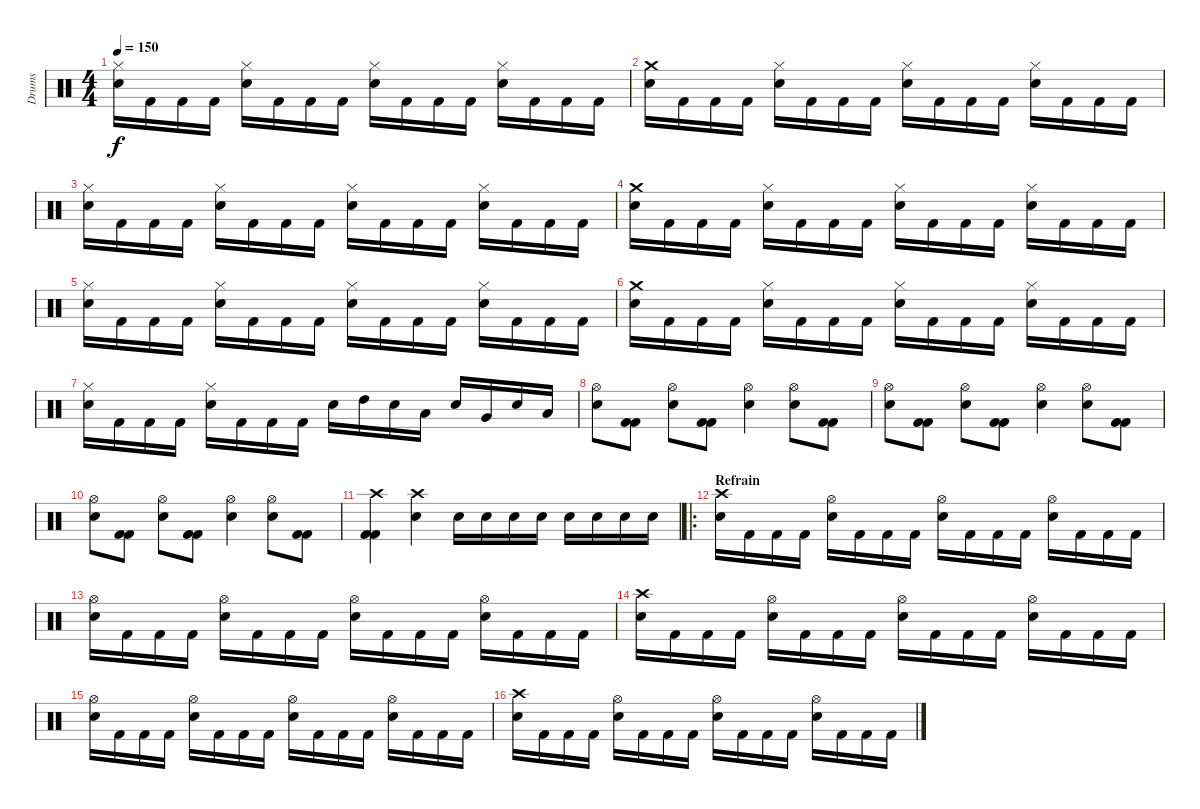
\track ("Drums" "Drums") {instrument percussion}
\staff {score}
\articulation defaults
\ts (4 4)
\tempo 150
\clef neutral
\ks c
("Hi-Hat (closed)" "Electric Snare (hit)").16{dy f} "Kick (hit) 2".16 "Kick (hit) 2".16 "Kick (hit) 2".16 ("Electric Snare (hit)" "Hi-Hat (closed)").16 "Kick (hit) 2".16 "Kick (hit) 2".16 "Kick (hit) 2".16 ("Hi-Hat (closed)" "Electric Snare (hit)").16 "Kick (hit) 2".16 "Kick (hit) 2".16 "Kick (hit) 2".16 ("Electric Snare (hit)" "Hi-Hat (closed)").16 "Kick (hit) 2".16 "Kick (hit) 2".16 "Kick (hit) 2".16 |
("Crash medium (hit)" "Electric Snare (hit)").16 "Kick (hit) 2".16 "Kick (hit) 2".16 "Kick (hit) 2".16 ("Electric Snare (hit)" "Hi-Hat (closed)").16 "Kick (hit) 2".16 "Kick (hit) 2".16 "Kick (hit) 2".16 ("Hi-Hat (closed)" "Electric Snare (hit)").16 "Kick (hit) 2".16 "Kick (hit) 2".16 "Kick (hit) 2".16 ("Electric Snare (hit)" "Hi-Hat (closed)").16 "Kick (hit) 2".16 "Kick (hit) 2".16 "Kick (hit) 2".16 |
("Hi-Hat (closed)" "Electric Snare (hit)").16 "Kick (hit) 2".16 "Kick (hit) 2".16 "Kick (hit) 2".16 ("Electric Snare (hit)" "Hi-Hat (closed)").16 "Kick (hit) 2".16 "Kick (hit) 2".16 "Kick (hit) 2".16 ("Hi-Hat (closed)" "Electric Snare (hit)").16 "Kick (hit) 2".16 "Kick (hit) 2".16 "Kick (hit) 2".16 ("Electric Snare (hit)" "Hi-Hat (closed)").16 "Kick (hit) 2".16 "Kick (hit) 2".16 "Kick (hit) 2".16 |
("Crash medium (hit)" "Electric Snare (hit)").16 "Kick (hit) 2".16 "Kick (hit) 2".16 "Kick (hit) 2".16 ("Electric Snare (hit)" "Hi-Hat (closed)").16 "Kick (hit) 2".16 "Kick (hit) 2".16 "Kick (hit) 2".16 ("Hi-Hat (closed)" "Electric Snare (hit)").16 "Kick (hit) 2".16 "Kick (hit) 2".16 "Kick (hit) 2".16 ("Electric Snare (hit)" "Hi-Hat (closed)").16 "Kick (hit) 2".16 "Kick (hit) 2".16 "Kick (hit) 2".16 |
("Hi-Hat (closed)" "Electric Snare (hit)").16 "Kick (hit) 2".16 "Kick (hit) 2".16 "Kick (hit) 2".16 ("Electric Snare (hit)" "Hi-Hat (closed)").16 "Kick (hit) 2".16 "Kick (hit) 2".16 "Kick (hit) 2".16 ("Hi-Hat (closed)" "Electric Snare (hit)").16 "Kick (hit) 2".16 "Kick (hit) 2".16 "Kick (hit) 2".16 ("Electric Snare (hit)" "Hi-Hat (closed)").16 "Kick (hit) 2".16 "Kick (hit) 2".16 "Kick (hit) 2".16 |
("Crash medium (hit)" "Electric Snare (hit)").16 "Kick (hit) 2".16 "Kick (hit) 2".16 "Kick (hit) 2".16 ("Electric Snare (hit)" "Hi-Hat (closed)").16 "Kick (hit) 2".16 "Kick (hit) 2".16 "Kick (hit) 2".16 ("Hi-Hat (closed)" "Electric Snare (hit)").16 "Kick (hit) 2".16 "Kick (hit) 2".16 "Kick (hit) 2".16 ("Electric Snare (hit)" "Hi-Hat (closed)").16 "Kick (hit) 2".16 "Kick (hit) 2".16 "Kick (hit) 2".16 |
("Hi-Hat (closed)" "Electric Snare (hit)").16 "Kick (hit) 2".16 "Kick (hit) 2".16 "Kick (hit) 2".16 ("Electric Snare (hit)" "Hi-Hat (closed)").16 "Kick (hit) 2".16 "Kick (hit) 2".16 "Kick (hit) 2".16 "Electric Snare (hit)".16 "High Tom (hit)".16 "Electric Snare (hit)".16 "Low Tom (hit)".16 "Electric Snare (hit)".16 "Very Low Tom (hit)".16 "Electric Snare (hit)".16 "Low Floor Tom (hit)".16 |
("Hi-Hat (open)" "Electric Snare (hit)").8 ("Kick (hit) 2" "Kick (hit) 2").8 ("Electric Snare (hit)" "Hi-Hat (open)").8 ("Kick (hit) 2" "Kick (hit) 2").8 ("Hi-Hat (open)" "Electric Snare (hit)").4 ("Hi-Hat (open)" "Electric Snare (hit)").8 ("Kick (hit) 2" "Kick (hit) 2").8 |
("Hi-Hat (open)" "Electric Snare (hit)").8 ("Kick (hit) 2" "Kick (hit) 2").8 ("Electric Snare (hit)" "Hi-Hat (open)").8 ("Kick (hit) 2" "Kick (hit) 2").8 ("Hi-Hat (open)" "Electric Snare (hit)").4 ("Hi-Hat (open)" "Electric Snare (hit)").8 ("Kick (hit) 2" "Kick (hit) 2").8 |
("Hi-Hat (open)" "Electric Snare (hit)").8 ("Kick (hit) 2" "Kick (hit) 2").8 ("Electric Snare (hit)" "Hi-Hat (open)").8 ("Kick (hit) 2" "Kick (hit) 2").8 ("Hi-Hat (open)" "Electric Snare (hit)").4 ("Hi-Hat (open)" "Electric Snare (hit)").8 ("Kick (hit) 2" "Kick (hit) 2").8 |
("Crash high (hit)" "Kick (hit) 2" "Kick (hit) 2").4 ("Electric Snare (hit)" "Crash high (hit)").4 "Electric Snare (hit)".16 "Electric Snare (hit)".16 "Electric Snare (hit)".16 "Electric Snare (hit)".16 "Electric Snare (hit)".16 "Electric Snare (hit)".16 "Electric Snare (hit)".16 "Electric Snare (hit)".16 |
\ro
\section ("" "Refrain ")
("Electric Snare (hit)" "Crash high (hit)").16 "Kick (hit) 2".16 "Kick (hit) 2".16 "Kick (hit) 2".16 ("Hi-Hat (open)" "Electric Snare (hit)").16 "Kick (hit) 2".16 "Kick (hit) 2".16 "Kick (hit) 2".16 ("Electric Snare (hit)" "Hi-Hat (open)").16 "Kick (hit) 2".16 "Kick (hit) 2".16 "Kick (hit) 2".16 ("Electric Snare (hit)" "Hi-Hat (open)").16 "Kick (hit) 2".16 "Kick (hit) 2".16 "Kick (hit) 2".16 |
("Electric Snare (hit)" "Hi-Hat (open)").16 "Kick (hit) 2".16 "Kick (hit) 2".16 "Kick (hit) 2".16 ("Hi-Hat (open)" "Electric Snare (hit)").16 "Kick (hit) 2".16 "Kick (hit) 2".16 "Kick (hit) 2".16 ("Electric Snare (hit)" "Hi-Hat (open)").16 "Kick (hit) 2".16 "Kick (hit) 2".16 "Kick (hit) 2".16 ("Electric Snare (hit)" "Hi-Hat (open)").16 "Kick (hit) 2".16 "Kick (hit) 2".16 "Kick (hit) 2".16 |
("Electric Snare (hit)" "Crash high (hit)").16 "Kick (hit) 2".16 "Kick (hit) 2".16 "Kick (hit) 2".16 ("Hi-Hat (open)" "Electric Snare (hit)").16 "Kick (hit) 2".16 "Kick (hit) 2".16 "Kick (hit) 2".16 ("Electric Snare (hit)" "Hi-Hat (open)").16 "Kick (hit) 2".16 "Kick (hit) 2".16 "Kick (hit) 2".16 ("Electric Snare (hit)" "Hi-Hat (open)").16 "Kick (hit) 2".16 "Kick (hit) 2".16 "Kick (hit) 2".16 |
("Electric Snare (hit)" "Hi-Hat (open)").16 "Kick (hit) 2".16 "Kick (hit) 2".16 "Kick (hit) 2".16 ("Hi-Hat (open)" "Electric Snare (hit)").16 "Kick (hit) 2".16 "Kick (hit) 2".16 "Kick (hit) 2".16 ("Electric Snare (hit)" "Hi-Hat (open)").16 "Kick (hit) 2".16 "Kick (hit) 2".16 "Kick (hit) 2".16 ("Electric Snare (hit)" "Hi-Hat (open)").16 "Kick (hit) 2".16 "Kick (hit) 2".16 "Kick (hit) 2".16 |
("Electric Snare (hit)" "Crash high (hit)").16 "Kick (hit) 2".16 "Kick (hit) 2".16 "Kick (hit) 2".16 ("Hi-Hat (open)" "Electric Snare (hit)").16 "Kick (hit) 2".16 "Kick (hit) 2".16 "Kick (hit) 2".16 ("Electric Snare (hit)" "Hi-Hat (open)").16 "Kick (hit) 2".16 "Kick (hit) 2".16 "Kick (hit) 2".16 ("Electric Snare (hit)" "Hi-Hat (open)").16 "Kick (hit) 2".16 "Kick (hit) 2".16 "Kick (hit) 2".16
